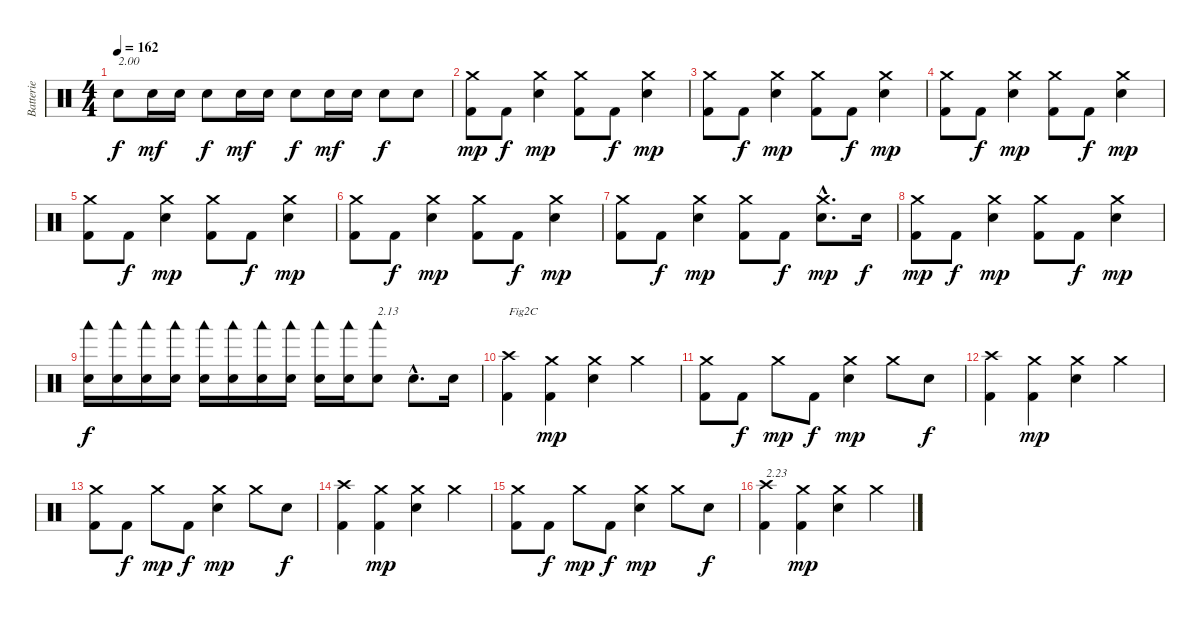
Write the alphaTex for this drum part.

\track ("Batterie" "Batterie") {instrument percussion}
\staff {score}
\articulation defaults
\ts (4 4)
\tempo 162
\clef neutral
\ks c "Electric Snare (hit)".8{txt "2.00" dy f} "Electric Snare (hit)".16{dy mf} "Electric Snare (hit)".16 "Electric Snare (hit)".8{dy f} "Electric Snare (hit)".16{dy mf} "Electric Snare (hit)".16 "Electric Snare (hit)".8{dy f} "Electric Snare (hit)".16{dy mf} "Electric Snare (hit)".16 "Electric Snare (hit)".8{dy f} "Electric Snare (hit)".8
|
("Kick (hit) 2" "Crash medium (hit)").8{dy mp} "Kick (hit) 2".8{dy f} ("Electric Snare (hit)" "Crash medium (hit)").4{dy mp} ("Kick (hit) 2" "Crash medium (hit)").8 "Kick (hit) 2".8{dy f} ("Electric Snare (hit)" "Crash medium (hit)").4{dy mp} |
("Kick (hit) 2" "Crash medium (hit)").8 "Kick (hit) 2".8{dy f} ("Electric Snare (hit)" "Crash medium (hit)").4{dy mp} ("Kick (hit) 2" "Crash medium (hit)").8 "Kick (hit) 2".8{dy f} ("Electric Snare (hit)" "Crash medium (hit)").4{dy mp} |
("Kick (hit) 2" "Crash medium (hit)").8 "Kick (hit) 2".8{dy f} ("Electric Snare (hit)" "Crash medium (hit)").4{dy mp} ("Kick (hit) 2" "Crash medium (hit)").8 "Kick (hit) 2".8{dy f} ("Electric Snare (hit)" "Crash medium (hit)").4{dy mp} |
("Kick (hit) 2" "Crash medium (hit)").8 "Kick (hit) 2".8{dy f} ("Electric Snare (hit)" "Crash medium (hit)").4{dy mp} ("Kick (hit) 2" "Crash medium (hit)").8 "Kick (hit) 2".8{dy f} ("Electric Snare (hit)" "Crash medium (hit)").4{dy mp} |
("Kick (hit) 2" "Crash medium (hit)").8 "Kick (hit) 2".8{dy f} ("Electric Snare (hit)" "Crash medium (hit)").4{dy mp} ("Kick (hit) 2" "Crash medium (hit)").8 "Kick (hit) 2".8{dy f} ("Electric Snare (hit)" "Crash medium (hit)").4{dy mp} |
("Kick (hit) 2" "Crash medium (hit)").8 "Kick (hit) 2".8{dy f} ("Electric Snare (hit)" "Crash medium (hit)").4{dy mp} ("Kick (hit) 2" "Crash medium (hit)").8 "Kick (hit) 2".8{dy f} ("Electric Snare (hit)"{hac} "Crash medium (hit)"{hac}).8{d dy mp} "Electric Snare (hit)".16{dy f} |
("Kick (hit) 2" "Crash medium (hit)").8{dy mp} "Kick (hit) 2".8{dy f} ("Electric Snare (hit)" "Crash medium (hit)").4{dy mp} ("Kick (hit) 2" "Crash medium (hit)").8 "Kick (hit) 2".8{dy f} ("Electric Snare (hit)" "Crash medium (hit)").4{dy mp} |
("Electric Snare (hit)" "Woodblock low (hit)").16{dy f} ("Electric Snare (hit)" "Woodblock low (hit)").16 ("Electric Snare (hit)" "Woodblock low (hit)").16 ("Electric Snare (hit)" "Woodblock low (hit)").16 ("Electric Snare (hit)" "Woodblock low (hit)").16 ("Electric Snare (hit)" "Woodblock low (hit)").16 ("Electric Snare (hit)" "Woodblock low (hit)").16 ("Electric Snare (hit)" "Woodblock low (hit)").16 ("Electric Snare (hit)" "Woodblock low (hit)").16 ("Electric Snare (hit)" "Woodblock low (hit)").16 ("Electric Snare (hit)" "Woodblock low (hit)").8{txt "2.13"} "Electric Snare (hit)"{hac}.8{d} "Electric Snare (hit)".16 |
("Kick (hit) 2" "Crash high (hit)").4{txt "Fig2C"} ("Kick (hit) 2" "Crash medium (hit)").4{dy mp} ("Electric Snare (hit)" "Crash medium (hit)").4 "Crash medium (hit)".4 |
("Kick (hit) 2" "Crash medium (hit)").8 "Kick (hit) 2".8{dy f} "Crash medium (hit)".8{dy mp} "Kick (hit) 2".8{dy f} ("Electric Snare (hit)" "Crash medium (hit)").4{dy mp} "Crash medium (hit)".8 "Electric Snare (hit)".8{dy f} |
("Kick (hit) 2" "Crash high (hit)").4 ("Kick (hit) 2" "Crash medium (hit)").4{dy mp} ("Electric Snare (hit)" "Crash medium (hit)").4 "Crash medium (hit)".4 |
("Kick (hit) 2" "Crash medium (hit)").8 "Kick (hit) 2".8{dy f} "Crash medium (hit)".8{dy mp} "Kick (hit) 2".8{dy f} ("Electric Snare (hit)" "Crash medium (hit)").4{dy mp} "Crash medium (hit)".8 "Electric Snare (hit)".8{dy f} |
("Kick (hit) 2" "Crash high (hit)").4 ("Kick (hit) 2" "Crash medium (hit)").4{dy mp} ("Electric Snare (hit)" "Crash medium (hit)").4 "Crash medium (hit)".4 |
("Kick (hit) 2" "Crash medium (hit)").8 "Kick (hit) 2".8{dy f} "Crash medium (hit)".8{dy mp} "Kick (hit) 2".8{dy f} ("Electric Snare (hit)" "Crash medium (hit)").4{dy mp} "Crash medium (hit)".8 "Electric Snare (hit)".8{dy f} |
("Kick (hit) 2" "Crash high (hit)").4{txt "2.23"} ("Kick (hit) 2" "Crash medium (hit)").4{dy mp} ("Electric Snare (hit)" "Crash medium (hit)").4 "Crash medium (hit)".4
